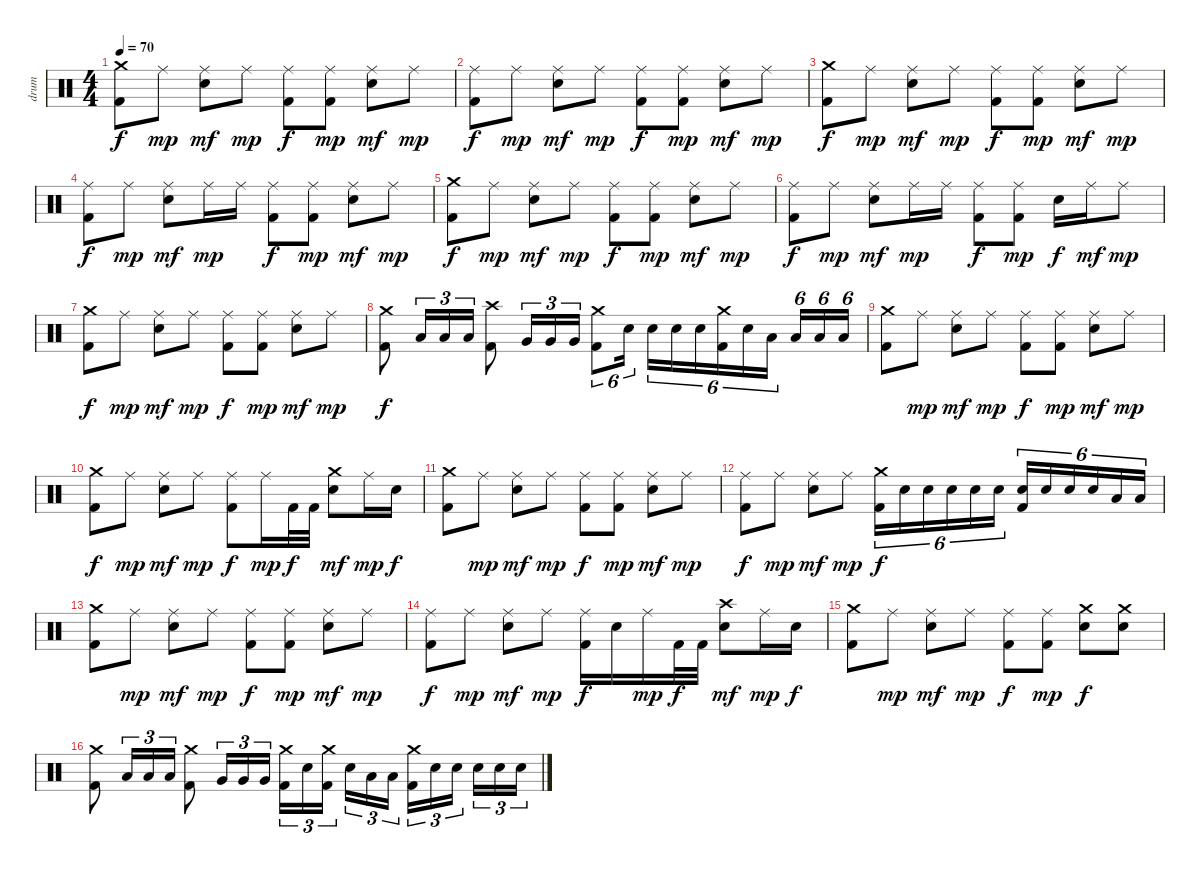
\track ("drum" "drum") {instrument percussion}
\staff {score}
\articulation defaults
\ts (4 4)
\tempo 70
\clef neutral
\ks c
("Crash medium (hit)" "Kick (hit) 2").8{dy f} "Ride (middle)".8{dy mp} ("Ride (middle)" "Electric Snare (hit)").8{dy mf} "Ride (middle)".8{dy mp} ("Ride (middle)" "Kick (hit) 2").8{dy f} ("Ride (middle)" "Kick (hit) 2").8{dy mp} ("Ride (middle)" "Electric Snare (hit)").8{dy mf} "Ride (middle)".8{dy mp} |
("Ride (middle)" "Kick (hit) 2").8{dy f} "Ride (middle)".8{dy mp} ("Ride (middle)" "Electric Snare (hit)").8{dy mf} "Ride (middle)".8{dy mp} ("Ride (middle)" "Kick (hit) 2").8{dy f} ("Ride (middle)" "Kick (hit) 2").8{dy mp} ("Ride (middle)" "Electric Snare (hit)").8{dy mf} "Ride (middle)".8{dy mp} |
("Crash medium (hit)" "Kick (hit) 2").8{dy f} "Ride (middle)".8{dy mp} ("Ride (middle)" "Electric Snare (hit)").8{dy mf} "Ride (middle)".8{dy mp} ("Ride (middle)" "Kick (hit) 2").8{dy f} ("Ride (middle)" "Kick (hit) 2").8{dy mp} ("Ride (middle)" "Electric Snare (hit)").8{dy mf} "Ride (middle)".8{dy mp} |
("Ride (middle)" "Kick (hit) 2").8{dy f} "Ride (middle)".8{dy mp} ("Ride (middle)" "Electric Snare (hit)").8{dy mf} "Ride (middle)".16{dy mp} "Ride (middle)".16 ("Ride (middle)" "Kick (hit) 2").8{dy f} ("Ride (middle)" "Kick (hit) 2").8{dy mp} ("Ride (middle)" "Electric Snare (hit)").8{dy mf} "Ride (middle)".8{dy mp} |
("Crash medium (hit)" "Kick (hit) 2").8{dy f} "Ride (middle)".8{dy mp} ("Ride (middle)" "Electric Snare (hit)").8{dy mf} "Ride (middle)".8{dy mp} ("Ride (middle)" "Kick (hit) 2").8{dy f} ("Ride (middle)" "Kick (hit) 2").8{dy mp} ("Ride (middle)" "Electric Snare (hit)").8{dy mf} "Ride (middle)".8{dy mp} |
("Ride (middle)" "Kick (hit) 2").8{dy f} "Ride (middle)".8{dy mp} ("Ride (middle)" "Electric Snare (hit)").8{dy mf} "Ride (middle)".16{dy mp} "Ride (middle)".16 ("Ride (middle)" "Kick (hit) 2").8{dy f} ("Ride (middle)" "Kick (hit) 2").8{dy mp} "Electric Snare (hit)".16{dy f} "Ride (middle)".16{dy mf} "Ride (middle)".8{dy mp} |
("Crash medium (hit)" "Kick (hit) 2").8{dy f} "Ride (middle)".8{dy mp} ("Ride (middle)" "Electric Snare (hit)").8{dy mf} "Ride (middle)".8{dy mp} ("Ride (middle)" "Kick (hit) 2").8{dy f} ("Ride (middle)" "Kick (hit) 2").8{dy mp} ("Ride (middle)" "Electric Snare (hit)").8{dy mf} "Ride (middle)".8{dy mp} |
("Crash medium (hit)" "Kick (hit) 2").8{dy f} "Low Tom (hit)".16{tu (3 2)} "Low Tom (hit)".16{tu (3 2)} "Low Tom (hit)".16{tu (3 2)} ("Crash high (hit)" "Kick (hit) 2").8 "Very Low Tom (hit)".16{tu (3 2)} "Very Low Tom (hit)".16{tu (3 2)} "Very Low Tom (hit)".16{tu (3 2)} ("Crash medium (hit)" "Kick (hit) 2").8{tu (6 4)} "Electric Snare (hit)".16{tu (6 4)} "Electric Snare (hit)".16{tu (6 4)} "Electric Snare (hit)".16{tu (6 4)} "Electric Snare (hit)".16{tu (6 4)} ("Crash medium (hit)" "Kick (hit) 2").16{tu (6 4)} "Electric Snare (hit)".16{tu (6 4)} "Low Tom (hit)".16{tu (6 4)} "Low Tom (hit)".16{tu (6 4)} "Low Tom (hit)".16{tu (6 4)} "Low Tom (hit)".16{tu (6 4)} |
("Crash medium (hit)" "Kick (hit) 2").8 "Ride (middle)".8{dy mp} ("Ride (middle)" "Electric Snare (hit)").8{dy mf} "Ride (middle)".8{dy mp} ("Ride (middle)" "Kick (hit) 2").8{dy f} ("Ride (middle)" "Kick (hit) 2").8{dy mp} ("Ride (middle)" "Electric Snare (hit)").8{dy mf} "Ride (middle)".8{dy mp} |
("Crash medium (hit)" "Kick (hit) 2").8{dy f} "Ride (middle)".8{dy mp} ("Ride (middle)" "Electric Snare (hit)").8{dy mf} "Ride (middle)".8{dy mp} ("Ride (middle)" "Kick (hit) 2").8{dy f} "Ride (middle)".16{dy mp} "Kick (hit) 2".32{dy f} "Kick (hit) 2".32 ("Crash medium (hit)" "Electric Snare (hit)").8{dy mf} "Ride (middle)".16{dy mp} "Electric Snare (hit)".16{dy f} |
("Crash medium (hit)" "Kick (hit) 2").8 "Ride (middle)".8{dy mp} ("Ride (middle)" "Electric Snare (hit)").8{dy mf} "Ride (middle)".8{dy mp} ("Ride (middle)" "Kick (hit) 2").8{dy f} ("Ride (middle)" "Kick (hit) 2").8{dy mp} ("Ride (middle)" "Electric Snare (hit)").8{dy mf} "Ride (middle)".8{dy mp} |
("Ride (middle)" "Kick (hit) 2").8{dy f} "Ride (middle)".8{dy mp} ("Ride (middle)" "Electric Snare (hit)").8{dy mf} "Ride (middle)".8{dy mp} ("Crash medium (hit)" "Kick (hit) 2").16{tu (6 4) dy f} "Electric Snare (hit)".16{tu (6 4)} "Electric Snare (hit)".16{tu (6 4)} "Electric Snare (hit)".16{tu (6 4)} "Electric Snare (hit)".16{tu (6 4)} "Electric Snare (hit)".16{tu (6 4)} ("Electric Snare (hit)" "Kick (hit) 2").16{tu (6 4)} "Electric Snare (hit)".16{tu (6 4)} "Electric Snare (hit)".16{tu (6 4)} "Electric Snare (hit)".16{tu (6 4)} "Low Tom (hit)".16{tu (6 4)} "Low Tom (hit)".16{tu (6 4)} |
("Crash medium (hit)" "Kick (hit) 2").8 "Ride (middle)".8{dy mp} ("Ride (middle)" "Electric Snare (hit)").8{dy mf} "Ride (middle)".8{dy mp} ("Ride (middle)" "Kick (hit) 2").8{dy f} ("Ride (middle)" "Kick (hit) 2").8{dy mp} ("Ride (middle)" "Electric Snare (hit)").8{dy mf} "Ride (middle)".8{dy mp} |
("Ride (middle)" "Kick (hit) 2").8{dy f} "Ride (middle)".8{dy mp} ("Ride (middle)" "Electric Snare (hit)").8{dy mf} "Ride (middle)".8{dy mp} ("Ride (middle)" "Kick (hit) 2").16{dy f} "Electric Snare (hit)".16 "Ride (middle)".16{dy mp} "Kick (hit) 2".32{dy f} "Kick (hit) 2".32 ("Crash high (hit)" "Electric Snare (hit)").8{dy mf} "Ride (middle)".16{dy mp} "Electric Snare (hit)".16{dy f} |
("Crash medium (hit)" "Kick (hit) 2").8 "Ride (middle)".8{dy mp} ("Ride (middle)" "Electric Snare (hit)").8{dy mf} "Ride (middle)".8{dy mp} ("Ride (middle)" "Kick (hit) 2").8{dy f} ("Ride (middle)" "Kick (hit) 2").8{dy mp} ("Crash medium (hit)" "Electric Snare (hit)").8{dy f} ("Crash medium (hit)" "Electric Snare (hit)").8 |
("Crash medium (hit)" "Kick (hit) 2").8 "Low Tom (hit)".16{tu (3 2)} "Low Tom (hit)".16{tu (3 2)} "Low Tom (hit)".16{tu (3 2)} ("Crash medium (hit)" "Kick (hit) 2").8 "Very Low Tom (hit)".16{tu (3 2)} "Very Low Tom (hit)".16{tu (3 2)} "Very Low Tom (hit)".16{tu (3 2)} ("Crash medium (hit)" "Kick (hit) 2").16{tu (3 2)} "Electric Snare (hit)".16{tu (3 2)} ("Crash medium (hit)" "Kick (hit) 2").16{tu (3 2)} "Electric Snare (hit)".16{tu (3 2)} "Low Tom (hit)".16{tu (3 2)} "Low Tom (hit)".16{tu (3 2)} ("Crash medium (hit)" "Kick (hit) 2").16{tu (3 2)} "Electric Snare (hit)".16{tu (3 2)} "Electric Snare (hit)".16{tu (3 2)} "Electric Snare (hit)".16{tu (3 2)} "Electric Snare (hit)".16{tu (3 2)} "Electric Snare (hit)".16{tu (3 2)}
